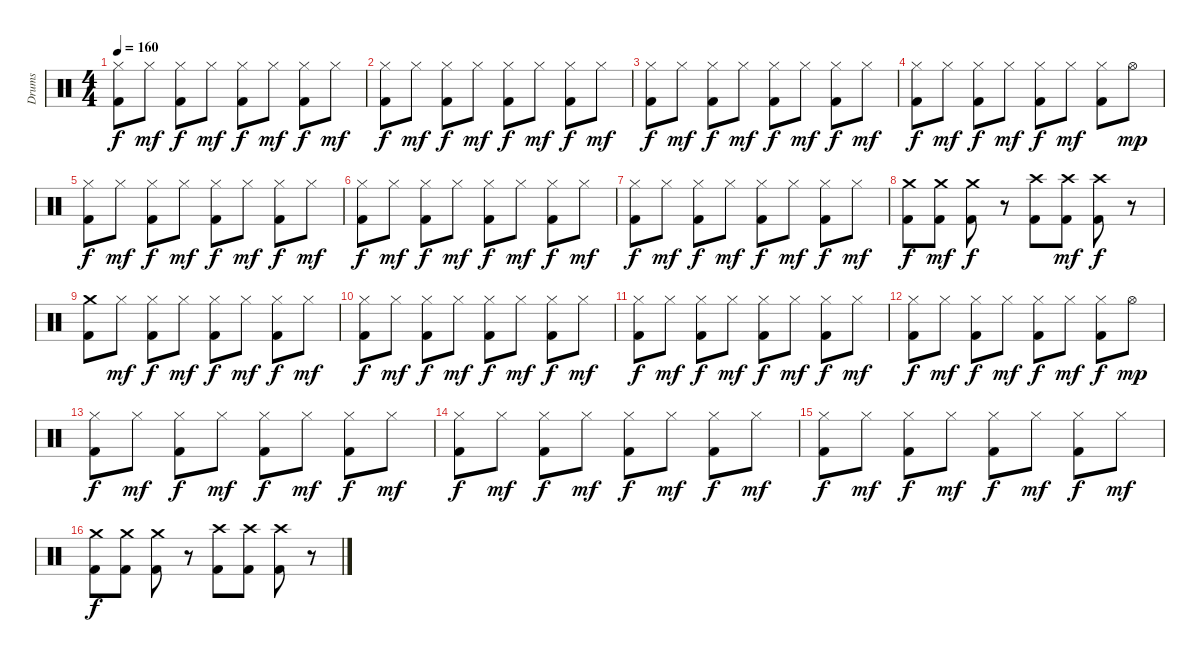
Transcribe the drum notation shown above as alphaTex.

\track ("Drums" "Drums") {instrument percussion}
\staff {score}
\articulation defaults
\ts (4 4)
\tempo 160
\clef neutral
\ks c
("Hi-Hat (closed)" "Kick (hit) 2").8{dy f} "Hi-Hat (closed)".8{dy mf} ("Hi-Hat (closed)" "Kick (hit) 2").8{dy f} "Hi-Hat (closed)".8{dy mf} ("Hi-Hat (closed)" "Kick (hit) 2").8{dy f} "Hi-Hat (closed)".8{dy mf} ("Hi-Hat (closed)" "Kick (hit) 2").8{dy f} "Hi-Hat (closed)".8{dy mf} |
("Hi-Hat (closed)" "Kick (hit) 2").8{dy f} "Hi-Hat (closed)".8{dy mf} ("Hi-Hat (closed)" "Kick (hit) 2").8{dy f} "Hi-Hat (closed)".8{dy mf} ("Hi-Hat (closed)" "Kick (hit) 2").8{dy f} "Hi-Hat (closed)".8{dy mf} ("Hi-Hat (closed)" "Kick (hit) 2").8{dy f} "Hi-Hat (closed)".8{dy mf} |
("Hi-Hat (closed)" "Kick (hit) 2").8{dy f} "Hi-Hat (closed)".8{dy mf} ("Hi-Hat (closed)" "Kick (hit) 2").8{dy f} "Hi-Hat (closed)".8{dy mf} ("Hi-Hat (closed)" "Kick (hit) 2").8{dy f} "Hi-Hat (closed)".8{dy mf} ("Hi-Hat (closed)" "Kick (hit) 2").8{dy f} "Hi-Hat (closed)".8{dy mf} |
("Hi-Hat (closed)" "Kick (hit) 2").8{dy f} "Hi-Hat (closed)".8{dy mf} ("Hi-Hat (closed)" "Kick (hit) 2").8{dy f} "Hi-Hat (closed)".8{dy mf} ("Hi-Hat (closed)" "Kick (hit) 2").8{dy f} "Hi-Hat (closed)".8{dy mf} ("Hi-Hat (closed)" "Kick (hit) 2").8 "Hi-Hat (open)".8{dy mp} |
("Hi-Hat (closed)" "Kick (hit) 2").8{dy f} "Hi-Hat (closed)".8{dy mf} ("Hi-Hat (closed)" "Kick (hit) 2").8{dy f} "Hi-Hat (closed)".8{dy mf} ("Hi-Hat (closed)" "Kick (hit) 2").8{dy f} "Hi-Hat (closed)".8{dy mf} ("Hi-Hat (closed)" "Kick (hit) 2").8{dy f} "Hi-Hat (closed)".8{dy mf} |
("Hi-Hat (closed)" "Kick (hit) 2").8{dy f} "Hi-Hat (closed)".8{dy mf} ("Hi-Hat (closed)" "Kick (hit) 2").8{dy f} "Hi-Hat (closed)".8{dy mf} ("Hi-Hat (closed)" "Kick (hit) 2").8{dy f} "Hi-Hat (closed)".8{dy mf} ("Hi-Hat (closed)" "Kick (hit) 2").8{dy f} "Hi-Hat (closed)".8{dy mf} |
("Hi-Hat (closed)" "Kick (hit) 2").8{dy f} "Hi-Hat (closed)".8{dy mf} ("Hi-Hat (closed)" "Kick (hit) 2").8{dy f} "Hi-Hat (closed)".8{dy mf} ("Hi-Hat (closed)" "Kick (hit) 2").8{dy f} "Hi-Hat (closed)".8{dy mf} ("Hi-Hat (closed)" "Kick (hit) 2").8{dy f} "Hi-Hat (closed)".8{dy mf} |
("Crash medium (hit)" "Kick (hit) 2").8{dy f} ("Crash medium (hit)" "Kick (hit) 2").8{dy mf} ("Crash medium (hit)" "Kick (hit) 2").8{dy f} r.8 ("Crash high (hit)" "Kick (hit) 2").8 ("Crash high (hit)" "Kick (hit) 2").8{dy mf} ("Crash high (hit)" "Kick (hit) 2").8{dy f} r.8 |
("Crash medium (hit)" "Kick (hit) 2").8 "Hi-Hat (closed)".8{dy mf} ("Hi-Hat (closed)" "Kick (hit) 2").8{dy f} "Hi-Hat (closed)".8{dy mf} ("Hi-Hat (closed)" "Kick (hit) 2").8{dy f} "Hi-Hat (closed)".8{dy mf} ("Hi-Hat (closed)" "Kick (hit) 2").8{dy f} "Hi-Hat (closed)".8{dy mf} |
("Hi-Hat (closed)" "Kick (hit) 2").8{dy f} "Hi-Hat (closed)".8{dy mf} ("Hi-Hat (closed)" "Kick (hit) 2").8{dy f} "Hi-Hat (closed)".8{dy mf} ("Hi-Hat (closed)" "Kick (hit) 2").8{dy f} "Hi-Hat (closed)".8{dy mf} ("Hi-Hat (closed)" "Kick (hit) 2").8{dy f} "Hi-Hat (closed)".8{dy mf} |
("Hi-Hat (closed)" "Kick (hit) 2").8{dy f} "Hi-Hat (closed)".8{dy mf} ("Hi-Hat (closed)" "Kick (hit) 2").8{dy f} "Hi-Hat (closed)".8{dy mf} ("Hi-Hat (closed)" "Kick (hit) 2").8{dy f} "Hi-Hat (closed)".8{dy mf} ("Hi-Hat (closed)" "Kick (hit) 2").8{dy f} "Hi-Hat (closed)".8{dy mf} |
("Hi-Hat (closed)" "Kick (hit) 2").8{dy f} "Hi-Hat (closed)".8{dy mf} ("Hi-Hat (closed)" "Kick (hit) 2").8{dy f} "Hi-Hat (closed)".8{dy mf} ("Hi-Hat (closed)" "Kick (hit) 2").8{dy f} "Hi-Hat (closed)".8{dy mf} ("Hi-Hat (closed)" "Kick (hit) 2").8{dy f} "Hi-Hat (open)".8{dy mp} |
("Hi-Hat (closed)" "Kick (hit) 2").8{dy f} "Hi-Hat (closed)".8{dy mf} ("Hi-Hat (closed)" "Kick (hit) 2").8{dy f} "Hi-Hat (closed)".8{dy mf} ("Hi-Hat (closed)" "Kick (hit) 2").8{dy f} "Hi-Hat (closed)".8{dy mf} ("Hi-Hat (closed)" "Kick (hit) 2").8{dy f} "Hi-Hat (closed)".8{dy mf} |
("Hi-Hat (closed)" "Kick (hit) 2").8{dy f} "Hi-Hat (closed)".8{dy mf} ("Hi-Hat (closed)" "Kick (hit) 2").8{dy f} "Hi-Hat (closed)".8{dy mf} ("Hi-Hat (closed)" "Kick (hit) 2").8{dy f} "Hi-Hat (closed)".8{dy mf} ("Hi-Hat (closed)" "Kick (hit) 2").8{dy f} "Hi-Hat (closed)".8{dy mf} |
("Hi-Hat (closed)" "Kick (hit) 2").8{dy f} "Hi-Hat (closed)".8{dy mf} ("Hi-Hat (closed)" "Kick (hit) 2").8{dy f} "Hi-Hat (closed)".8{dy mf} ("Hi-Hat (closed)" "Kick (hit) 2").8{dy f} "Hi-Hat (closed)".8{dy mf} ("Hi-Hat (closed)" "Kick (hit) 2").8{dy f} "Hi-Hat (closed)".8{dy mf} |
("Crash medium (hit)" "Kick (hit) 2").8{dy f} ("Crash medium (hit)" "Kick (hit) 2").8 ("Crash medium (hit)" "Kick (hit) 2").8 r.8 ("Crash high (hit)" "Kick (hit) 2").8 ("Crash high (hit)" "Kick (hit) 2").8 ("Crash high (hit)" "Kick (hit) 2").8 r.8
